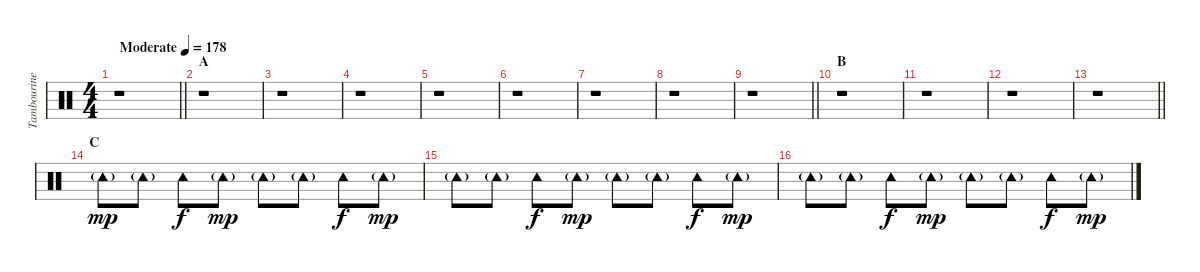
\track ("Tambourine" "Tambourine") {instrument percussion}
\staff {score}
\articulation defaults
\ts (4 4)
\tempo (178 "Moderate")
\clef neutral
\barLineRight lightlight
\ks c
r.1{dy mp} |
\section ("" "A")
r.1 |
r.1 |
r.1 |
r.1 |
r.1 |
r.1 |
r.1 |
\barLineRight lightlight
r.1 |
\section ("" "B")
r.1 |
r.1 |
r.1 |
\barLineRight lightlight
r.1 |
\section ("" "C")
"Tambourine (hit)"{g}.8 "Tambourine (hit)"{g}.8 "Tambourine (hit)".8{dy f} "Tambourine (hit)"{g}.8{dy mp} "Tambourine (hit)"{g}.8 "Tambourine (hit)"{g}.8 "Tambourine (hit)".8{dy f} "Tambourine (hit)"{g}.8{dy mp} |
"Tambourine (hit)"{g}.8 "Tambourine (hit)"{g}.8 "Tambourine (hit)".8{dy f} "Tambourine (hit)"{g}.8{dy mp} "Tambourine (hit)"{g}.8 "Tambourine (hit)"{g}.8 "Tambourine (hit)".8{dy f} "Tambourine (hit)"{g}.8{dy mp} |
"Tambourine (hit)"{g}.8 "Tambourine (hit)"{g}.8 "Tambourine (hit)".8{dy f} "Tambourine (hit)"{g}.8{dy mp} "Tambourine (hit)"{g}.8 "Tambourine (hit)"{g}.8 "Tambourine (hit)".8{dy f} "Tambourine (hit)"{g}.8{dy mp}
